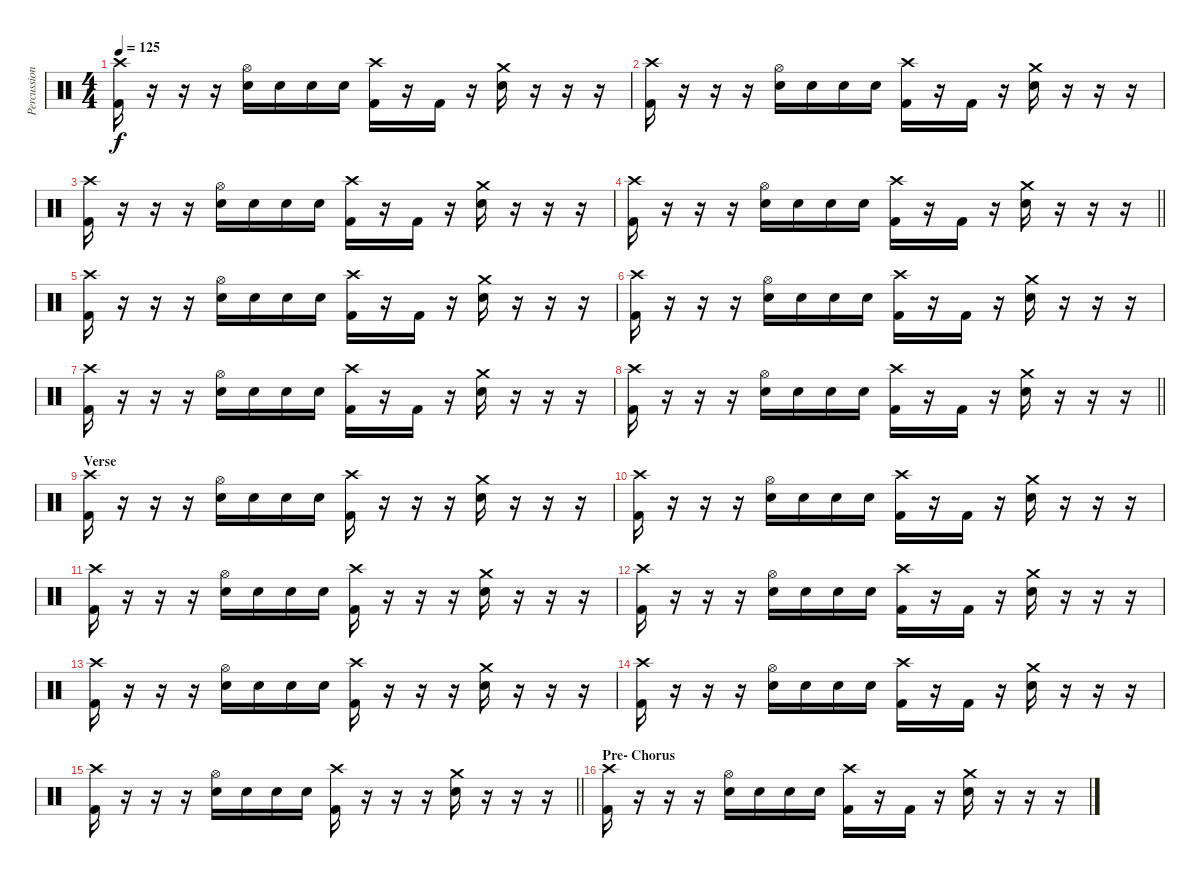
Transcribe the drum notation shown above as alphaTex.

\track ("Percussion" "Percussion") {instrument percussion}
\staff {score}
\articulation defaults
\ts (4 4)
\tempo 125
\clef neutral
\ks c
("Crash high (hit)" "Kick (hit) 2").16{dy f} r.16 r.16 r.16 ("Hi-Hat (open)" "Snare (hit) 2").16 "Snare (hit) 2".16 "Snare (hit) 2".16 "Snare (hit) 2".16 ("Crash high (hit)" "Kick (hit) 2").16 r.16 "Kick (hit) 2".16 r.16 ("Crash medium (hit)" "Snare (hit) 2").16 r.16 r.16 r.16 |
("Crash high (hit)" "Kick (hit) 2").16 r.16 r.16 r.16 ("Hi-Hat (open)" "Snare (hit) 2").16 "Snare (hit) 2".16 "Snare (hit) 2".16 "Snare (hit) 2".16 ("Crash high (hit)" "Kick (hit) 2").16 r.16 "Kick (hit) 2".16 r.16 ("Crash medium (hit)" "Snare (hit) 2").16 r.16 r.16 r.16 |
("Crash high (hit)" "Kick (hit) 2").16 r.16 r.16 r.16 ("Hi-Hat (open)" "Snare (hit) 2").16 "Snare (hit) 2".16 "Snare (hit) 2".16 "Snare (hit) 2".16 ("Crash high (hit)" "Kick (hit) 2").16 r.16 "Kick (hit) 2".16 r.16 ("Crash medium (hit)" "Snare (hit) 2").16 r.16 r.16 r.16 |
\barLineRight lightlight
("Crash high (hit)" "Kick (hit) 2").16 r.16 r.16 r.16 ("Hi-Hat (open)" "Snare (hit) 2").16 "Snare (hit) 2".16 "Snare (hit) 2".16 "Snare (hit) 2".16 ("Crash high (hit)" "Kick (hit) 2").16 r.16 "Kick (hit) 2".16 r.16 ("Crash medium (hit)" "Snare (hit) 2").16 r.16 r.16 r.16 |
("Crash high (hit)" "Kick (hit) 2").16 r.16 r.16 r.16 ("Hi-Hat (open)" "Snare (hit) 2").16 "Snare (hit) 2".16 "Snare (hit) 2".16 "Snare (hit) 2".16 ("Crash high (hit)" "Kick (hit) 2").16 r.16 "Kick (hit) 2".16 r.16 ("Crash medium (hit)" "Snare (hit) 2").16 r.16 r.16 r.16 |
("Crash high (hit)" "Kick (hit) 2").16 r.16 r.16 r.16 ("Hi-Hat (open)" "Snare (hit) 2").16 "Snare (hit) 2".16 "Snare (hit) 2".16 "Snare (hit) 2".16 ("Crash high (hit)" "Kick (hit) 2").16 r.16 "Kick (hit) 2".16 r.16 ("Crash medium (hit)" "Snare (hit) 2").16 r.16 r.16 r.16 |
("Crash high (hit)" "Kick (hit) 2").16 r.16 r.16 r.16 ("Hi-Hat (open)" "Snare (hit) 2").16 "Snare (hit) 2".16 "Snare (hit) 2".16 "Snare (hit) 2".16 ("Crash high (hit)" "Kick (hit) 2").16 r.16 "Kick (hit) 2".16 r.16 ("Crash medium (hit)" "Snare (hit) 2").16 r.16 r.16 r.16 |
\barLineRight lightlight
("Crash high (hit)" "Kick (hit) 2").16 r.16 r.16 r.16 ("Hi-Hat (open)" "Snare (hit) 2").16 "Snare (hit) 2".16 "Snare (hit) 2".16 "Snare (hit) 2".16 ("Crash high (hit)" "Kick (hit) 2").16 r.16 "Kick (hit) 2".16 r.16 ("Crash medium (hit)" "Snare (hit) 2").16 r.16 r.16 r.16 |
\section ("" "Verse")
("Crash high (hit)" "Kick (hit) 2").16 r.16 r.16 r.16 ("Hi-Hat (open)" "Snare (hit) 2").16 "Snare (hit) 2".16 "Snare (hit) 2".16 "Snare (hit) 2".16 ("Crash high (hit)" "Kick (hit) 2").16 r.16 r.16 r.16 ("Crash medium (hit)" "Snare (hit) 2").16 r.16 r.16 r.16 |
("Crash high (hit)" "Kick (hit) 2").16 r.16 r.16 r.16 ("Hi-Hat (open)" "Snare (hit) 2").16 "Snare (hit) 2".16 "Snare (hit) 2".16 "Snare (hit) 2".16 ("Crash high (hit)" "Kick (hit) 2").16 r.16 "Kick (hit) 2".16 r.16 ("Crash medium (hit)" "Snare (hit) 2").16 r.16 r.16 r.16 |
("Crash high (hit)" "Kick (hit) 2").16 r.16 r.16 r.16 ("Hi-Hat (open)" "Snare (hit) 2").16 "Snare (hit) 2".16 "Snare (hit) 2".16 "Snare (hit) 2".16 ("Crash high (hit)" "Kick (hit) 2").16 r.16 r.16 r.16 ("Crash medium (hit)" "Snare (hit) 2").16 r.16 r.16 r.16 |
("Crash high (hit)" "Kick (hit) 2").16 r.16 r.16 r.16 ("Hi-Hat (open)" "Snare (hit) 2").16 "Snare (hit) 2".16 "Snare (hit) 2".16 "Snare (hit) 2".16 ("Crash high (hit)" "Kick (hit) 2").16 r.16 "Kick (hit) 2".16 r.16 ("Crash medium (hit)" "Snare (hit) 2").16 r.16 r.16 r.16 |
("Crash high (hit)" "Kick (hit) 2").16 r.16 r.16 r.16 ("Hi-Hat (open)" "Snare (hit) 2").16 "Snare (hit) 2".16 "Snare (hit) 2".16 "Snare (hit) 2".16 ("Crash high (hit)" "Kick (hit) 2").16 r.16 r.16 r.16 ("Crash medium (hit)" "Snare (hit) 2").16 r.16 r.16 r.16 |
("Crash high (hit)" "Kick (hit) 2").16 r.16 r.16 r.16 ("Hi-Hat (open)" "Snare (hit) 2").16 "Snare (hit) 2".16 "Snare (hit) 2".16 "Snare (hit) 2".16 ("Crash high (hit)" "Kick (hit) 2").16 r.16 "Kick (hit) 2".16 r.16 ("Crash medium (hit)" "Snare (hit) 2").16 r.16 r.16 r.16 |
\barLineRight lightlight
("Crash high (hit)" "Kick (hit) 2").16 r.16 r.16 r.16 ("Hi-Hat (open)" "Snare (hit) 2").16 "Snare (hit) 2".16 "Snare (hit) 2".16 "Snare (hit) 2".16 ("Crash high (hit)" "Kick (hit) 2").16 r.16 r.16 r.16 ("Crash medium (hit)" "Snare (hit) 2").16 r.16 r.16 r.16 |
\section ("" "Pre- Chorus")
("Crash high (hit)" "Kick (hit) 2").16 r.16 r.16 r.16 ("Hi-Hat (open)" "Snare (hit) 2").16 "Snare (hit) 2".16 "Snare (hit) 2".16 "Snare (hit) 2".16 ("Crash high (hit)" "Kick (hit) 2").16 r.16 "Kick (hit) 2".16 r.16 ("Crash medium (hit)" "Snare (hit) 2").16 r.16 r.16 r.16
